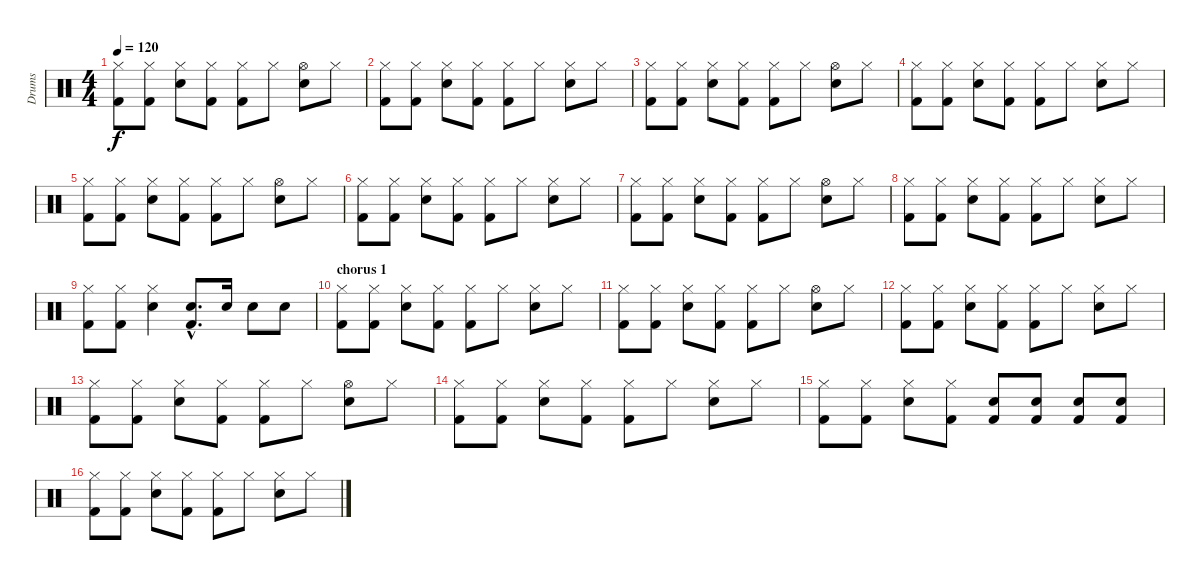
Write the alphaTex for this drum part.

\track ("Drums " "Drums ") {instrument percussion}
\staff {score}
\articulation defaults
\ts (4 4)
\tempo 120
\clef neutral
\ks c
("Kick (hit) 2" "Hi-Hat (closed)").8{dy f} ("Kick (hit) 2" "Hi-Hat (closed)").8 ("Electric Snare (hit)" "Hi-Hat (closed)").8 ("Kick (hit) 2" "Hi-Hat (closed)").8 ("Kick (hit) 2" "Hi-Hat (closed)").8 "Hi-Hat (closed)".8 ("Electric Snare (hit)" "Hi-Hat (open)").8 "Hi-Hat (closed)".8 |
("Kick (hit) 2" "Hi-Hat (closed)").8 ("Kick (hit) 2" "Hi-Hat (closed)").8 ("Electric Snare (hit)" "Hi-Hat (closed)").8 ("Kick (hit) 2" "Hi-Hat (closed)").8 ("Kick (hit) 2" "Hi-Hat (closed)").8 "Hi-Hat (closed)".8 ("Electric Snare (hit)" "Hi-Hat (closed)").8 "Hi-Hat (closed)".8 |
("Kick (hit) 2" "Hi-Hat (closed)").8 ("Kick (hit) 2" "Hi-Hat (closed)").8 ("Electric Snare (hit)" "Hi-Hat (closed)").8 ("Kick (hit) 2" "Hi-Hat (closed)").8 ("Kick (hit) 2" "Hi-Hat (closed)").8 "Hi-Hat (closed)".8 ("Electric Snare (hit)" "Hi-Hat (open)").8 "Hi-Hat (closed)".8 |
("Kick (hit) 2" "Hi-Hat (closed)").8 ("Kick (hit) 2" "Hi-Hat (closed)").8 ("Electric Snare (hit)" "Hi-Hat (closed)").8 ("Kick (hit) 2" "Hi-Hat (closed)").8 ("Kick (hit) 2" "Hi-Hat (closed)").8 "Hi-Hat (closed)".8 ("Electric Snare (hit)" "Hi-Hat (closed)").8 "Hi-Hat (closed)".8 |
("Kick (hit) 2" "Hi-Hat (closed)").8 ("Kick (hit) 2" "Hi-Hat (closed)").8 ("Electric Snare (hit)" "Hi-Hat (closed)").8 ("Kick (hit) 2" "Hi-Hat (closed)").8 ("Kick (hit) 2" "Hi-Hat (closed)").8 "Hi-Hat (closed)".8 ("Electric Snare (hit)" "Hi-Hat (open)").8 "Hi-Hat (closed)".8 |
("Kick (hit) 2" "Hi-Hat (closed)").8 ("Kick (hit) 2" "Hi-Hat (closed)").8 ("Electric Snare (hit)" "Hi-Hat (closed)").8 ("Kick (hit) 2" "Hi-Hat (closed)").8 ("Kick (hit) 2" "Hi-Hat (closed)").8 "Hi-Hat (closed)".8 ("Electric Snare (hit)" "Hi-Hat (closed)").8 "Hi-Hat (closed)".8 |
("Kick (hit) 2" "Hi-Hat (closed)").8 ("Kick (hit) 2" "Hi-Hat (closed)").8 ("Electric Snare (hit)" "Hi-Hat (closed)").8 ("Kick (hit) 2" "Hi-Hat (closed)").8 ("Kick (hit) 2" "Hi-Hat (closed)").8 "Hi-Hat (closed)".8 ("Electric Snare (hit)" "Hi-Hat (open)").8 "Hi-Hat (closed)".8 |
("Kick (hit) 2" "Hi-Hat (closed)").8 ("Kick (hit) 2" "Hi-Hat (closed)").8 ("Electric Snare (hit)" "Hi-Hat (closed)").8 ("Kick (hit) 2" "Hi-Hat (closed)").8 ("Kick (hit) 2" "Hi-Hat (closed)").8 "Hi-Hat (closed)".8 ("Electric Snare (hit)" "Hi-Hat (closed)").8 "Hi-Hat (closed)".8 |
("Hi-Hat (closed)" "Kick (hit) 2").8 ("Kick (hit) 2" "Hi-Hat (closed)").8 ("Electric Snare (hit)" "Hi-Hat (closed)").4 ("Kick (hit) 2"{hac} "Electric Snare (hit)"{hac}).8{d} "Electric Snare (hit)".16 "Electric Snare (hit)".8 "Electric Snare (hit)".8 |
\section ("" "chorus 1")
("Kick (hit) 2" "Hi-Hat (closed)").8 ("Kick (hit) 2" "Hi-Hat (closed)").8 ("Electric Snare (hit)" "Hi-Hat (closed)").8 ("Kick (hit) 2" "Hi-Hat (closed)").8 ("Kick (hit) 2" "Hi-Hat (closed)").8 "Hi-Hat (closed)".8 ("Electric Snare (hit)" "Hi-Hat (closed)").8 "Hi-Hat (closed)".8 |
("Kick (hit) 2" "Hi-Hat (closed)").8 ("Kick (hit) 2" "Hi-Hat (closed)").8 ("Electric Snare (hit)" "Hi-Hat (closed)").8 ("Kick (hit) 2" "Hi-Hat (closed)").8 ("Kick (hit) 2" "Hi-Hat (closed)").8 "Hi-Hat (closed)".8 ("Electric Snare (hit)" "Hi-Hat (open)").8 "Hi-Hat (closed)".8 |
("Kick (hit) 2" "Hi-Hat (closed)").8 ("Kick (hit) 2" "Hi-Hat (closed)").8 ("Electric Snare (hit)" "Hi-Hat (closed)").8 ("Kick (hit) 2" "Hi-Hat (closed)").8 ("Kick (hit) 2" "Hi-Hat (closed)").8 "Hi-Hat (closed)".8 ("Electric Snare (hit)" "Hi-Hat (closed)").8 "Hi-Hat (closed)".8 |
("Kick (hit) 2" "Hi-Hat (closed)").8 ("Kick (hit) 2" "Hi-Hat (closed)").8 ("Electric Snare (hit)" "Hi-Hat (closed)").8 ("Kick (hit) 2" "Hi-Hat (closed)").8 ("Kick (hit) 2" "Hi-Hat (closed)").8 "Hi-Hat (closed)".8 ("Electric Snare (hit)" "Hi-Hat (open)").8 "Hi-Hat (closed)".8 |
("Kick (hit) 2" "Hi-Hat (closed)").8 ("Kick (hit) 2" "Hi-Hat (closed)").8 ("Electric Snare (hit)" "Hi-Hat (closed)").8 ("Kick (hit) 2" "Hi-Hat (closed)").8 ("Kick (hit) 2" "Hi-Hat (closed)").8 "Hi-Hat (closed)".8 ("Electric Snare (hit)" "Hi-Hat (closed)").8 "Hi-Hat (closed)".8 |
("Hi-Hat (closed)" "Kick (hit) 2").8 ("Hi-Hat (closed)" "Kick (hit) 2").8 ("Hi-Hat (closed)" "Electric Snare (hit)").8 ("Hi-Hat (closed)" "Kick (hit) 2").8 ("Electric Snare (hit)" "Kick (hit) 2").8 ("Electric Snare (hit)" "Kick (hit) 2").8 ("Electric Snare (hit)" "Kick (hit) 2").8 ("Electric Snare (hit)" "Kick (hit) 2").8 |
("Kick (hit) 2" "Hi-Hat (closed)").8 ("Kick (hit) 2" "Hi-Hat (closed)").8 ("Electric Snare (hit)" "Hi-Hat (closed)").8 ("Kick (hit) 2" "Hi-Hat (closed)").8 ("Kick (hit) 2" "Hi-Hat (closed)").8 "Hi-Hat (closed)".8 ("Electric Snare (hit)" "Hi-Hat (closed)").8 "Hi-Hat (closed)".8
